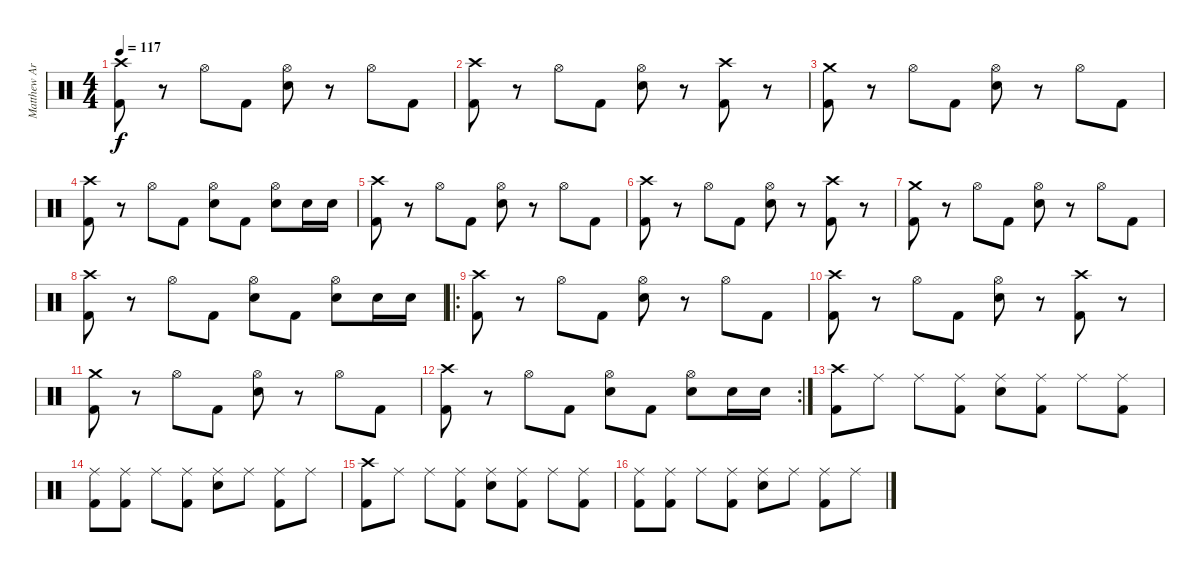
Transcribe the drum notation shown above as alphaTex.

\track ("Matthew Archer" "Matthew Ar") {instrument percussion}
\staff {score}
\articulation defaults
\ts (4 4)
\tempo 117
\clef neutral
\ks c
("Crash high (hit)" "Kick (hit) 2").8{dy f} r.8 "Hi-Hat (open)".8 "Kick (hit) 2".8 ("Hi-Hat (open)" "Snare (hit) 2").8 r.8 "Hi-Hat (open)".8 "Kick (hit) 2".8 |
("Crash high (hit)" "Kick (hit) 2").8 r.8 "Hi-Hat (open)".8 "Kick (hit) 2".8 ("Hi-Hat (open)" "Snare (hit) 2").8 r.8 ("Crash high (hit)" "Kick (hit) 2").8 r.8 |
("Crash medium (hit)" "Kick (hit) 2").8 r.8 "Hi-Hat (open)".8 "Kick (hit) 2".8 ("Hi-Hat (open)" "Snare (hit) 2").8 r.8 "Hi-Hat (open)".8 "Kick (hit) 2".8 |
("Crash high (hit)" "Kick (hit) 2").8 r.8 "Hi-Hat (open)".8 "Kick (hit) 2".8 ("Hi-Hat (open)" "Snare (hit) 2").8 "Kick (hit) 2".8 ("Hi-Hat (open)" "Snare (hit) 2").8 "Snare (hit) 2".16 "Snare (hit) 2".16 |
("Crash high (hit)" "Kick (hit) 2").8 r.8 "Hi-Hat (open)".8 "Kick (hit) 2".8 ("Hi-Hat (open)" "Snare (hit) 2").8 r.8 "Hi-Hat (open)".8 "Kick (hit) 2".8 |
("Crash high (hit)" "Kick (hit) 2").8 r.8 "Hi-Hat (open)".8 "Kick (hit) 2".8 ("Hi-Hat (open)" "Snare (hit) 2").8 r.8 ("Crash high (hit)" "Kick (hit) 2").8 r.8 |
("Crash medium (hit)" "Kick (hit) 2").8 r.8 "Hi-Hat (open)".8 "Kick (hit) 2".8 ("Hi-Hat (open)" "Snare (hit) 2").8 r.8 "Hi-Hat (open)".8 "Kick (hit) 2".8 |
("Crash high (hit)" "Kick (hit) 2").8 r.8 "Hi-Hat (open)".8 "Kick (hit) 2".8 ("Hi-Hat (open)" "Snare (hit) 2").8 "Kick (hit) 2".8 ("Hi-Hat (open)" "Snare (hit) 2").8 "Snare (hit) 2".16 "Snare (hit) 2".16 |
\ro
("Crash high (hit)" "Kick (hit) 2").8 r.8 "Hi-Hat (open)".8 "Kick (hit) 2".8 ("Hi-Hat (open)" "Snare (hit) 2").8 r.8 "Hi-Hat (open)".8 "Kick (hit) 2".8 |
("Crash high (hit)" "Kick (hit) 2").8 r.8 "Hi-Hat (open)".8 "Kick (hit) 2".8 ("Hi-Hat (open)" "Snare (hit) 2").8 r.8 ("Crash high (hit)" "Kick (hit) 2").8 r.8 |
("Crash medium (hit)" "Kick (hit) 2").8 r.8 "Hi-Hat (open)".8 "Kick (hit) 2".8 ("Hi-Hat (open)" "Snare (hit) 2").8 r.8 "Hi-Hat (open)".8 "Kick (hit) 2".8 |
\rc 2
("Crash high (hit)" "Kick (hit) 2").8 r.8 "Hi-Hat (open)".8 "Kick (hit) 2".8 ("Hi-Hat (open)" "Snare (hit) 2").8 "Kick (hit) 2".8 ("Hi-Hat (open)" "Snare (hit) 2").8 "Snare (hit) 2".16 "Snare (hit) 2".16 |
("Crash high (hit)" "Kick (hit) 2").8 "Ride (middle)".8 "Ride (middle)".8 ("Ride (middle)" "Kick (hit) 2").8 ("Ride (middle)" "Snare (hit) 2").8 ("Ride (middle)" "Kick (hit) 2").8 "Ride (middle)".8 ("Ride (middle)" "Kick (hit) 2").8 |
("Ride (middle)" "Kick (hit) 2").8 ("Ride (middle)" "Kick (hit) 2").8 "Ride (middle)".8 ("Ride (middle)" "Kick (hit) 2").8 ("Ride (middle)" "Snare (hit) 2").8 "Ride (middle)".8 ("Ride (middle)" "Kick (hit) 2").8 "Ride (middle)".8 |
("Crash high (hit)" "Kick (hit) 2").8 "Ride (middle)".8 "Ride (middle)".8 ("Ride (middle)" "Kick (hit) 2").8 ("Ride (middle)" "Snare (hit) 2").8 ("Ride (middle)" "Kick (hit) 2").8 "Ride (middle)".8 ("Ride (middle)" "Kick (hit) 2").8 |
("Ride (middle)" "Kick (hit) 2").8 ("Ride (middle)" "Kick (hit) 2").8 "Ride (middle)".8 ("Ride (middle)" "Kick (hit) 2").8 ("Ride (middle)" "Snare (hit) 2").8 "Ride (middle)".8 ("Ride (middle)" "Kick (hit) 2").8 "Ride (middle)".8
